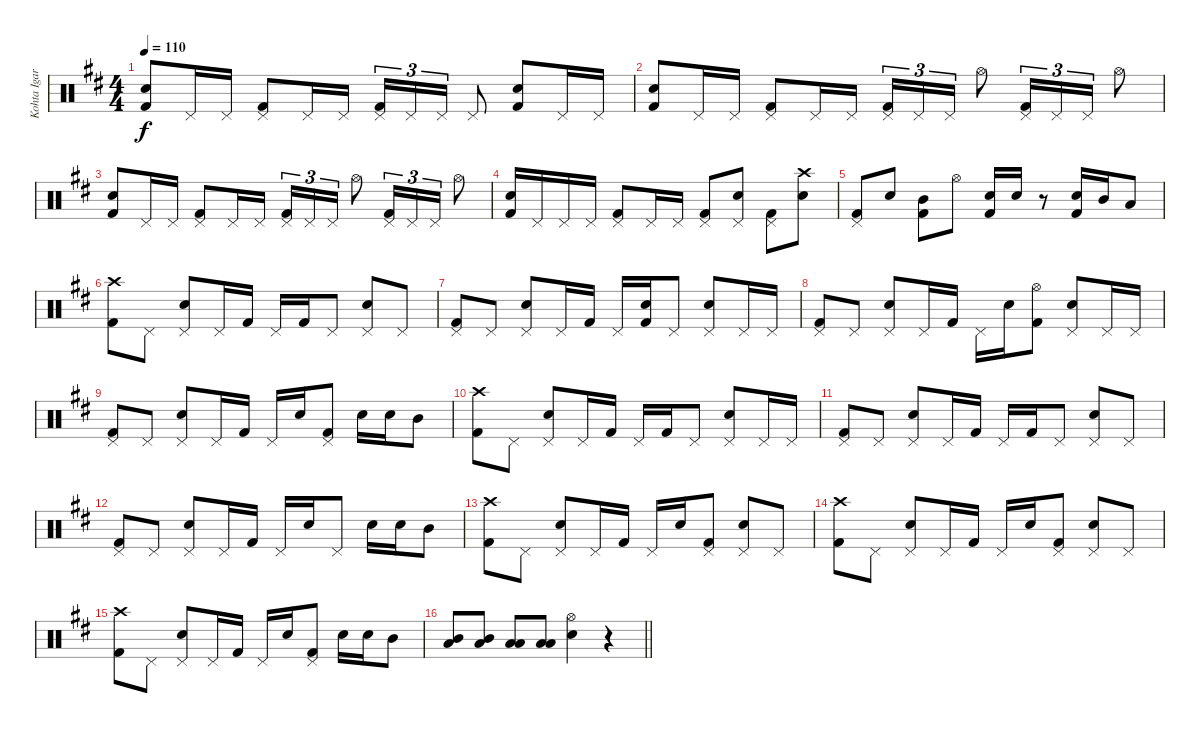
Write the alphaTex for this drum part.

\track ("Kohta Igarashi" "Kohta Igar") {instrument percussion}
\staff {score}
\articulation defaults
\ts (4 4)
\tempo 110
\clef neutral
\ks d
("Electric Snare (hit)" "Kick (hit) 2").8{dy f} "Pedal Hi-Hat (hit)".16 "Pedal Hi-Hat (hit)".16 ("Pedal Hi-Hat (hit)" "Kick (hit) 2").8 "Pedal Hi-Hat (hit)".16 "Pedal Hi-Hat (hit)".16 ("Pedal Hi-Hat (hit)" "Kick (hit) 2").16{tu (3 2)} "Pedal Hi-Hat (hit)".16{tu (3 2)} "Pedal Hi-Hat (hit)".16{tu (3 2)} "Pedal Hi-Hat (hit)".8 ("Electric Snare (hit)" "Kick (hit) 2").8 "Pedal Hi-Hat (hit)".16 "Pedal Hi-Hat (hit)".16 |
("Electric Snare (hit)" "Kick (hit) 2").8 "Pedal Hi-Hat (hit)".16 "Pedal Hi-Hat (hit)".16 ("Pedal Hi-Hat (hit)" "Kick (hit) 2").8 "Pedal Hi-Hat (hit)".16 "Pedal Hi-Hat (hit)".16 ("Pedal Hi-Hat (hit)" "Kick (hit) 2").16{tu (3 2)} "Pedal Hi-Hat (hit)".16{tu (3 2)} "Pedal Hi-Hat (hit)".16{tu (3 2)} "Hi-Hat (open)".8 ("Pedal Hi-Hat (hit)" "Kick (hit) 2").16{tu (3 2)} "Pedal Hi-Hat (hit)".16{tu (3 2)} "Pedal Hi-Hat (hit)".16{tu (3 2)} "Hi-Hat (open)".8 |
("Electric Snare (hit)" "Kick (hit) 2").8 "Pedal Hi-Hat (hit)".16 "Pedal Hi-Hat (hit)".16 ("Pedal Hi-Hat (hit)" "Kick (hit) 2").8 "Pedal Hi-Hat (hit)".16 "Pedal Hi-Hat (hit)".16 ("Pedal Hi-Hat (hit)" "Kick (hit) 2").16{tu (3 2)} "Pedal Hi-Hat (hit)".16{tu (3 2)} "Pedal Hi-Hat (hit)".16{tu (3 2)} "Hi-Hat (open)".8 ("Pedal Hi-Hat (hit)" "Kick (hit) 2").16{tu (3 2)} "Pedal Hi-Hat (hit)".16{tu (3 2)} "Pedal Hi-Hat (hit)".16{tu (3 2)} "Hi-Hat (open)".8 |
("Electric Snare (hit)" "Kick (hit) 2").16 "Pedal Hi-Hat (hit)".16 "Pedal Hi-Hat (hit)".16 "Pedal Hi-Hat (hit)".16 ("Pedal Hi-Hat (hit)" "Kick (hit) 2").8 "Pedal Hi-Hat (hit)".16 "Pedal Hi-Hat (hit)".16 ("Pedal Hi-Hat (hit)" "Kick (hit) 2").8 ("Pedal Hi-Hat (hit)" "Electric Snare (hit)").8 ("Pedal Hi-Hat (hit)" "Kick (hit) 2").8 ("Crash high (hit)" "Electric Snare (hit)").8 |
("Pedal Hi-Hat (hit)" "Kick (hit) 2").8 "Electric Snare (hit)".8 ("Mid Tom (hit)" "Kick (hit) 2").8 "Hi-Hat (open)".8 ("Electric Snare (hit)" "Kick (hit) 2").16 "Electric Snare (hit)".16 r.8 ("Electric Snare (hit)" "Kick (hit) 2").16 "Mid Tom (hit)".16 "Low Tom (hit)".8 |
("Crash high (hit)" "Kick (hit) 2").8 "Pedal Hi-Hat (hit)".8 ("Pedal Hi-Hat (hit)" "Electric Snare (hit)").8 "Pedal Hi-Hat (hit)".16 "Kick (hit) 2".16 "Pedal Hi-Hat (hit)".16 "Kick (hit) 2".16 "Pedal Hi-Hat (hit)".8 ("Pedal Hi-Hat (hit)" "Electric Snare (hit)").8 "Pedal Hi-Hat (hit)".8 |
("Pedal Hi-Hat (hit)" "Kick (hit) 2").8 "Pedal Hi-Hat (hit)".8 ("Pedal Hi-Hat (hit)" "Electric Snare (hit)").8 "Pedal Hi-Hat (hit)".16 "Kick (hit) 2".16 "Pedal Hi-Hat (hit)".16 ("Electric Snare (hit)" "Kick (hit) 2").16 "Pedal Hi-Hat (hit)".8 ("Pedal Hi-Hat (hit)" "Electric Snare (hit)").8 "Pedal Hi-Hat (hit)".16 "Pedal Hi-Hat (hit)".16 |
("Pedal Hi-Hat (hit)" "Kick (hit) 2").8 "Pedal Hi-Hat (hit)".8 ("Pedal Hi-Hat (hit)" "Electric Snare (hit)").8 "Pedal Hi-Hat (hit)".16 "Kick (hit) 2".16 "Pedal Hi-Hat (hit)".16 "Electric Snare (hit)".16 ("Hi-Hat (open)" "Kick (hit) 2").8 ("Pedal Hi-Hat (hit)" "Electric Snare (hit)").8 "Pedal Hi-Hat (hit)".16 "Pedal Hi-Hat (hit)".16 |
("Pedal Hi-Hat (hit)" "Kick (hit) 2").8 "Pedal Hi-Hat (hit)".8 ("Pedal Hi-Hat (hit)" "Electric Snare (hit)").8 "Pedal Hi-Hat (hit)".16 "Kick (hit) 2".16 "Pedal Hi-Hat (hit)".16 "Electric Snare (hit)".16 ("Pedal Hi-Hat (hit)" "Kick (hit) 2").8 "Electric Snare (hit)".16 "Electric Snare (hit)".16 "Mid Tom (hit)".8 |
("Crash high (hit)" "Kick (hit) 2").8 "Pedal Hi-Hat (hit)".8 ("Pedal Hi-Hat (hit)" "Electric Snare (hit)").8 "Pedal Hi-Hat (hit)".16 "Kick (hit) 2".16 "Pedal Hi-Hat (hit)".16 "Kick (hit) 2".16 "Pedal Hi-Hat (hit)".8 ("Pedal Hi-Hat (hit)" "Electric Snare (hit)").8 "Pedal Hi-Hat (hit)".16 "Pedal Hi-Hat (hit)".16 |
("Pedal Hi-Hat (hit)" "Kick (hit) 2").8 "Pedal Hi-Hat (hit)".8 ("Pedal Hi-Hat (hit)" "Electric Snare (hit)").8 "Pedal Hi-Hat (hit)".16 "Kick (hit) 2".16 "Pedal Hi-Hat (hit)".16 "Kick (hit) 2".16 "Pedal Hi-Hat (hit)".8 ("Pedal Hi-Hat (hit)" "Electric Snare (hit)").8 "Pedal Hi-Hat (hit)".8 |
("Pedal Hi-Hat (hit)" "Kick (hit) 2").8 "Pedal Hi-Hat (hit)".8 ("Pedal Hi-Hat (hit)" "Electric Snare (hit)").8 "Pedal Hi-Hat (hit)".16 "Kick (hit) 2".16 "Pedal Hi-Hat (hit)".16 "Electric Snare (hit)".16 "Pedal Hi-Hat (hit)".8 "Electric Snare (hit)".16 "Electric Snare (hit)".16 "Mid Tom (hit)".8 |
("Crash high (hit)" "Kick (hit) 2").8 "Pedal Hi-Hat (hit)".8 ("Pedal Hi-Hat (hit)" "Electric Snare (hit)").8 "Pedal Hi-Hat (hit)".16 "Kick (hit) 2".16 "Pedal Hi-Hat (hit)".16 "Electric Snare (hit)".16 ("Pedal Hi-Hat (hit)" "Kick (hit) 2").8 ("Pedal Hi-Hat (hit)" "Electric Snare (hit)").8 "Pedal Hi-Hat (hit)".8 |
("Crash high (hit)" "Kick (hit) 2").8 "Pedal Hi-Hat (hit)".8 ("Pedal Hi-Hat (hit)" "Electric Snare (hit)").8 "Pedal Hi-Hat (hit)".16 "Kick (hit) 2".16 "Pedal Hi-Hat (hit)".16 "Electric Snare (hit)".16 ("Pedal Hi-Hat (hit)" "Kick (hit) 2").8 ("Pedal Hi-Hat (hit)" "Electric Snare (hit)").8 "Pedal Hi-Hat (hit)".8 |
("Crash high (hit)" "Kick (hit) 2").8 "Pedal Hi-Hat (hit)".8 ("Pedal Hi-Hat (hit)" "Electric Snare (hit)").8 "Pedal Hi-Hat (hit)".16 "Kick (hit) 2".16 "Pedal Hi-Hat (hit)".16 "Electric Snare (hit)".16 ("Pedal Hi-Hat (hit)" "Kick (hit) 2").8 "Electric Snare (hit)".16 "Electric Snare (hit)".16 "Mid Tom (hit)".8 |
\barLineRight lightlight
("Mid Tom (hit)" "Low Floor Tom (hit)").8 ("Mid Tom (hit)" "Low Floor Tom (hit)").8 ("Low Tom (hit)" "Low Floor Tom (hit)").8 ("Low Tom (hit)" "Low Floor Tom (hit)").8 ("Hi-Hat (open)" "Electric Snare (hit)").4 r.4
